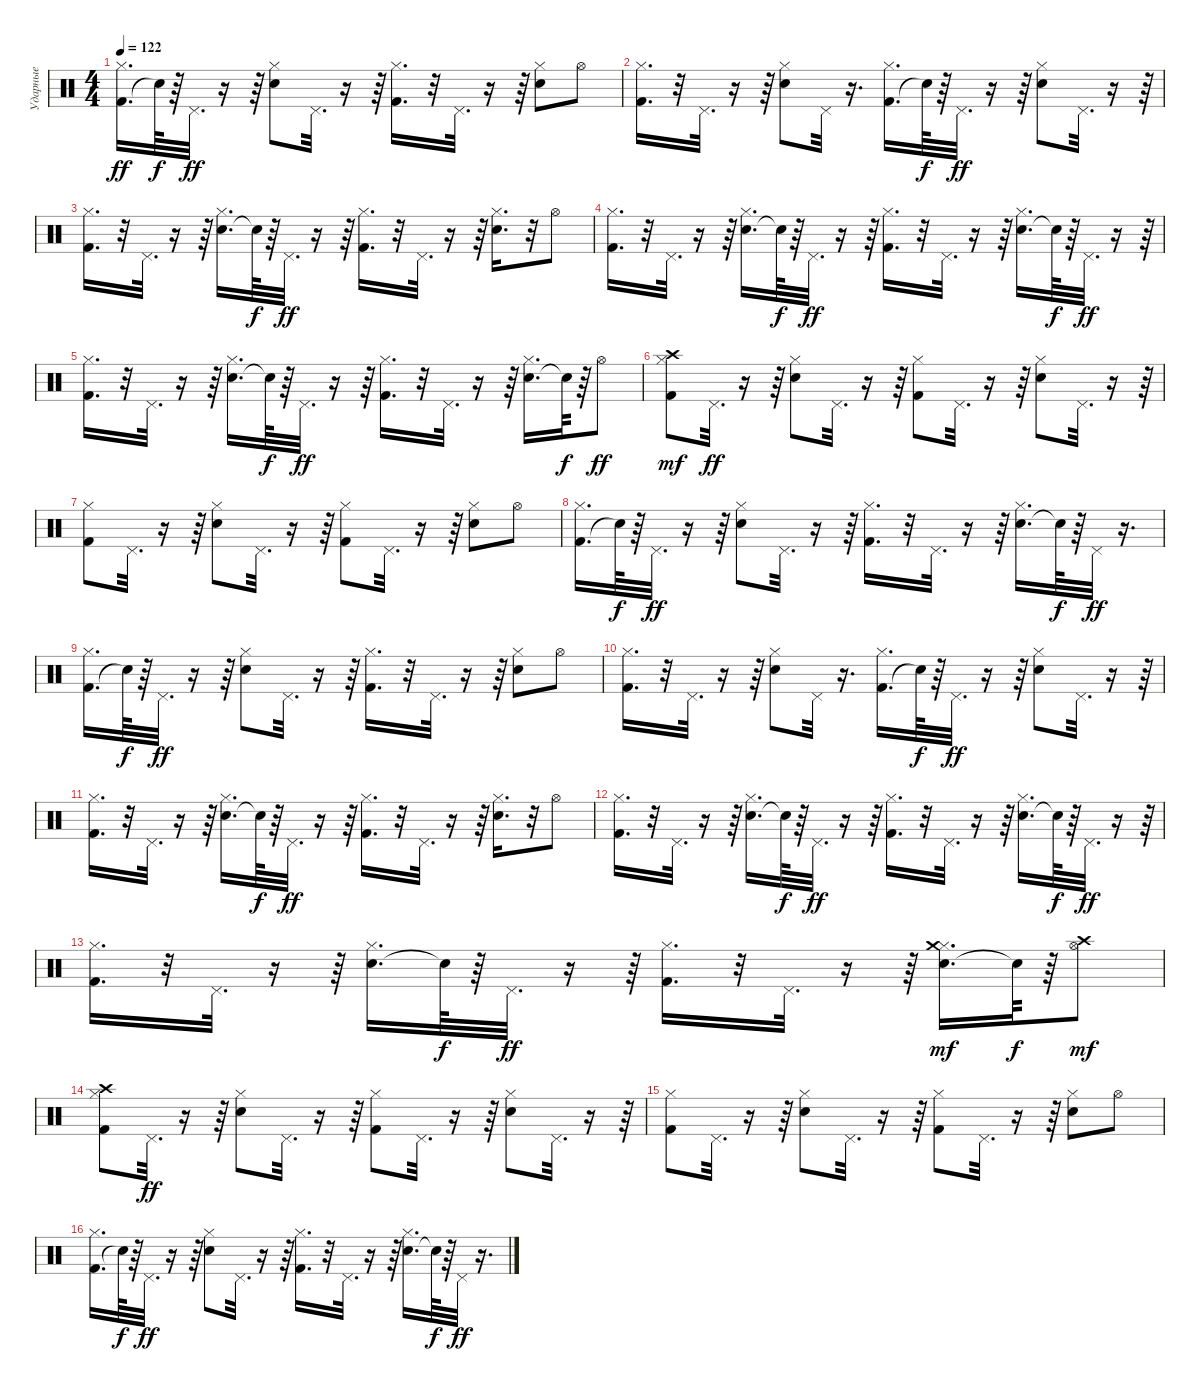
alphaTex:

\track ("Ударные" "Ударные") {instrument percussion}
\staff {score}
\articulation defaults
\ts (4 4)
\tempo 122
\clef neutral
\ks c
("Kick (hit) 2" "Hi-Hat (closed)").16{d dy ff} "Snare (hit)"{t}.64{dy f} r.64 "Pedal Hi-Hat (hit)".32{d dy ff} r.16 r.64 ("Snare (hit) 2" "Hi-Hat (closed)").8 "Pedal Hi-Hat (hit)".32{d} r.16 r.64 ("Kick (hit) 2" "Hi-Hat (closed)").16{d} r.32 "Pedal Hi-Hat (hit)".32{d} r.16 r.64 ("Snare (hit) 2" "Hi-Hat (closed)").8 "Hi-Hat (open)".8 |
("Kick (hit) 2" "Hi-Hat (closed)").16{d} r.32 "Pedal Hi-Hat (hit)".32{d} r.16 r.64 ("Snare (hit) 2" "Hi-Hat (closed)").8 "Pedal Hi-Hat (hit)".32 r.16{d} ("Kick (hit) 2" "Hi-Hat (closed)").16{d} "Snare (hit)"{t}.64{dy f} r.64 "Pedal Hi-Hat (hit)".32{d dy ff} r.16 r.64 ("Snare (hit) 2" "Hi-Hat (closed)").8 "Pedal Hi-Hat (hit)".32{d} r.16 r.64 |
("Kick (hit) 2" "Hi-Hat (closed)").16{d} r.32 "Pedal Hi-Hat (hit)".32{d} r.16 r.64 ("Snare (hit) 2" "Hi-Hat (closed)").16{d} "Snare (hit)"{t}.64{dy f} r.64 "Pedal Hi-Hat (hit)".32{d dy ff} r.16 r.64 ("Kick (hit) 2" "Hi-Hat (closed)").16{d} r.32 "Pedal Hi-Hat (hit)".32{d} r.16 r.64 ("Snare (hit) 2" "Hi-Hat (closed)").16{d} r.32 "Hi-Hat (open)".8 |
("Kick (hit) 2" "Hi-Hat (closed)").16{d} r.32 "Pedal Hi-Hat (hit)".32{d} r.16 r.64 ("Snare (hit) 2" "Hi-Hat (closed)").16{d} "Snare (hit)"{t}.64{dy f} r.64 "Pedal Hi-Hat (hit)".32{d dy ff} r.16 r.64 ("Kick (hit) 2" "Hi-Hat (closed)").16{d} r.32 "Pedal Hi-Hat (hit)".32{d} r.16 r.64 ("Snare (hit) 2" "Hi-Hat (closed)").16{d} "Snare (hit)"{t}.64{dy f} r.64 "Pedal Hi-Hat (hit)".32{d dy ff} r.16 r.64 |
("Kick (hit) 2" "Hi-Hat (closed)").16{d} r.32 "Pedal Hi-Hat (hit)".32{d} r.16 r.64 ("Snare (hit) 2" "Hi-Hat (closed)").16{d} "Snare (hit)"{t}.64{dy f} r.64 "Pedal Hi-Hat (hit)".32{d dy ff} r.16 r.64 ("Kick (hit) 2" "Hi-Hat (closed)").16{d} r.32 "Pedal Hi-Hat (hit)".32{d} r.16 r.64 ("Snare (hit) 2" "Hi-Hat (closed)").16{d} "Snare (hit)"{t}.64{dy f} r.64 "Hi-Hat (open)".8{dy ff} |
("Kick (hit) 2" "Hi-Hat (closed)" "Crash high (hit)").8{dy mf} "Pedal Hi-Hat (hit)".32{d dy ff} r.16 r.64 ("Snare (hit) 2" "Hi-Hat (closed)").8 "Pedal Hi-Hat (hit)".32{d} r.16 r.64 ("Kick (hit) 2" "Hi-Hat (closed)").8 "Pedal Hi-Hat (hit)".32{d} r.16 r.64 ("Snare (hit) 2" "Hi-Hat (closed)").8 "Pedal Hi-Hat (hit)".32{d} r.16 r.64 |
("Kick (hit) 2" "Hi-Hat (closed)").8 "Pedal Hi-Hat (hit)".32{d} r.16 r.64 ("Snare (hit) 2" "Hi-Hat (closed)").8 "Pedal Hi-Hat (hit)".32{d} r.16 r.64 ("Kick (hit) 2" "Hi-Hat (closed)").8 "Pedal Hi-Hat (hit)".32{d} r.16 r.64 ("Snare (hit) 2" "Hi-Hat (closed)").8 "Hi-Hat (open)".8 |
("Kick (hit) 2" "Hi-Hat (closed)").16{d} "Snare (hit)"{t}.64{dy f} r.64 "Pedal Hi-Hat (hit)".32{d dy ff} r.16 r.64 ("Snare (hit) 2" "Hi-Hat (closed)").8 "Pedal Hi-Hat (hit)".32{d} r.16 r.64 ("Kick (hit) 2" "Hi-Hat (closed)").16{d} r.32 "Pedal Hi-Hat (hit)".32{d} r.16 r.64 ("Snare (hit) 2" "Hi-Hat (closed)").16{d} "Snare (hit)"{t}.64{dy f} r.64 "Pedal Hi-Hat (hit)".32{dy ff} r.16{d} |
("Kick (hit) 2" "Hi-Hat (closed)").16{d} "Snare (hit)"{t}.64{dy f} r.64 "Pedal Hi-Hat (hit)".32{d dy ff} r.16 r.64 ("Snare (hit) 2" "Hi-Hat (closed)").8 "Pedal Hi-Hat (hit)".32{d} r.16 r.64 ("Kick (hit) 2" "Hi-Hat (closed)").16{d} r.32 "Pedal Hi-Hat (hit)".32{d} r.16 r.64 ("Snare (hit) 2" "Hi-Hat (closed)").8 "Hi-Hat (open)".8 |
("Kick (hit) 2" "Hi-Hat (closed)").16{d} r.32 "Pedal Hi-Hat (hit)".32{d} r.16 r.64 ("Snare (hit) 2" "Hi-Hat (closed)").8 "Pedal Hi-Hat (hit)".32 r.16{d} ("Kick (hit) 2" "Hi-Hat (closed)").16{d} "Snare (hit)"{t}.64{dy f} r.64 "Pedal Hi-Hat (hit)".32{d dy ff} r.16 r.64 ("Snare (hit) 2" "Hi-Hat (closed)").8 "Pedal Hi-Hat (hit)".32{d} r.16 r.64 |
("Kick (hit) 2" "Hi-Hat (closed)").16{d} r.32 "Pedal Hi-Hat (hit)".32{d} r.16 r.64 ("Snare (hit) 2" "Hi-Hat (closed)").16{d} "Snare (hit)"{t}.64{dy f} r.64 "Pedal Hi-Hat (hit)".32{d dy ff} r.16 r.64 ("Kick (hit) 2" "Hi-Hat (closed)").16{d} r.32 "Pedal Hi-Hat (hit)".32{d} r.16 r.64 ("Snare (hit) 2" "Hi-Hat (closed)").16{d} r.32 "Hi-Hat (open)".8 |
("Kick (hit) 2" "Hi-Hat (closed)").16{d} r.32 "Pedal Hi-Hat (hit)".32{d} r.16 r.64 ("Snare (hit) 2" "Hi-Hat (closed)").16{d} "Snare (hit)"{t}.64{dy f} r.64 "Pedal Hi-Hat (hit)".32{d dy ff} r.16 r.64 ("Kick (hit) 2" "Hi-Hat (closed)").16{d} r.32 "Pedal Hi-Hat (hit)".32{d} r.16 r.64 ("Snare (hit) 2" "Hi-Hat (closed)").16{d} "Snare (hit)"{t}.64{dy f} r.64 "Pedal Hi-Hat (hit)".32{d dy ff} r.16 r.64 |
("Kick (hit) 2" "Hi-Hat (closed)").16{d} r.32 "Pedal Hi-Hat (hit)".32{d} r.16 r.64 ("Snare (hit) 2" "Hi-Hat (closed)").16{d} "Snare (hit)"{t}.64{dy f} r.64 "Pedal Hi-Hat (hit)".32{d dy ff} r.16 r.64 ("Kick (hit) 2" "Hi-Hat (closed)").16{d} r.32 "Pedal Hi-Hat (hit)".32{d} r.16 r.64 ("Snare (hit) 2" "Hi-Hat (closed)" "Crash medium (hit)").16{d dy mf} "Snare (hit)"{t}.64{dy f} r.64 ("Hi-Hat (open)" "Crash high (hit)").8{dy mf} |
("Kick (hit) 2" "Hi-Hat (closed)" "Crash high (hit)").8 "Pedal Hi-Hat (hit)".32{d dy ff} r.16 r.64 ("Snare (hit) 2" "Hi-Hat (closed)").8 "Pedal Hi-Hat (hit)".32{d} r.16 r.64 ("Kick (hit) 2" "Hi-Hat (closed)").8 "Pedal Hi-Hat (hit)".32{d} r.16 r.64 ("Snare (hit) 2" "Hi-Hat (closed)").8 "Pedal Hi-Hat (hit)".32{d} r.16 r.64 |
("Kick (hit) 2" "Hi-Hat (closed)").8 "Pedal Hi-Hat (hit)".32{d} r.16 r.64 ("Snare (hit) 2" "Hi-Hat (closed)").8 "Pedal Hi-Hat (hit)".32{d} r.16 r.64 ("Kick (hit) 2" "Hi-Hat (closed)").8 "Pedal Hi-Hat (hit)".32{d} r.16 r.64 ("Snare (hit) 2" "Hi-Hat (closed)").8 "Hi-Hat (open)".8 |
("Kick (hit) 2" "Hi-Hat (closed)").16{d} "Snare (hit)"{t}.64{dy f} r.64 "Pedal Hi-Hat (hit)".32{d dy ff} r.16 r.64 ("Snare (hit) 2" "Hi-Hat (closed)").8 "Pedal Hi-Hat (hit)".32{d} r.16 r.64 ("Kick (hit) 2" "Hi-Hat (closed)").16{d} r.32 "Pedal Hi-Hat (hit)".32{d} r.16 r.64 ("Snare (hit) 2" "Hi-Hat (closed)").16{d} "Snare (hit)"{t}.64{dy f} r.64 "Pedal Hi-Hat (hit)".32{dy ff} r.16{d}
